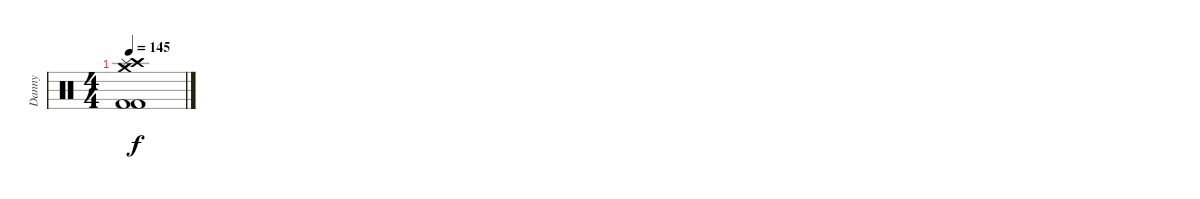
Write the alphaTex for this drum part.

\track ("Danny" "Danny") {instrument percussion}
\staff {score}
\articulation defaults
\ts (4 4)
\tempo 145
\clef neutral
\ks c
("Crash medium (hit)" "Kick (hit) 2" "Kick (hit) 2" "Crash high (hit)" "Splash (hit)").1{dy f}
